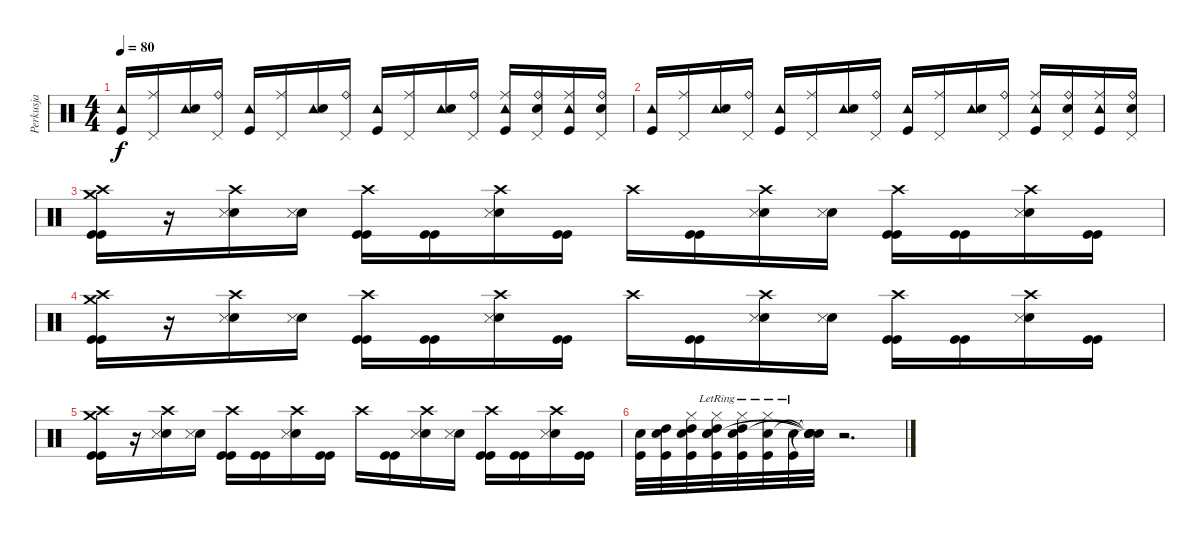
\track ("Perkusja" "Perkusja") {instrument percussion}
\staff {score}
\articulation defaults
\ts (4 4)
\tempo 80
\clef neutral
\ks c
("Tambourine (hit)" "Kick (hit)").16{dy f} ("Pedal Hi-Hat (hit)" "Ride (middle)").16 ("Tambourine (hit)" "Snare (hit) 2").16 ("Pedal Hi-Hat (hit)" "Ride (bell)").16 ("Tambourine (hit)" "Kick (hit)").16 ("Pedal Hi-Hat (hit)" "Ride (middle)").16 ("Tambourine (hit)" "Snare (hit) 2").16 ("Pedal Hi-Hat (hit)" "Ride (bell)").16 ("Tambourine (hit)" "Kick (hit)").16 ("Pedal Hi-Hat (hit)" "Ride (middle)").16 ("Tambourine (hit)" "Snare (hit) 2").16 ("Pedal Hi-Hat (hit)" "Ride (bell)").16 ("Tambourine (hit)" "Kick (hit)" "Ride (middle)").16 ("Pedal Hi-Hat (hit)" "Snare (hit) 2" "Ride (bell)").16 ("Tambourine (hit)" "Kick (hit)" "Ride (middle)").16 ("Pedal Hi-Hat (hit)" "Snare (hit) 2" "Ride (bell)").16 |
("Tambourine (hit)" "Kick (hit)").16 ("Pedal Hi-Hat (hit)" "Ride (middle)").16 ("Tambourine (hit)" "Snare (hit) 2").16 ("Pedal Hi-Hat (hit)" "Ride (bell)").16 ("Tambourine (hit)" "Kick (hit)").16 ("Pedal Hi-Hat (hit)" "Ride (middle)").16 ("Tambourine (hit)" "Snare (hit) 2").16 ("Pedal Hi-Hat (hit)" "Ride (bell)").16 ("Tambourine (hit)" "Kick (hit)").16 ("Pedal Hi-Hat (hit)" "Ride (middle)").16 ("Tambourine (hit)" "Snare (hit) 2").16 ("Pedal Hi-Hat (hit)" "Ride (bell)").16 ("Tambourine (hit)" "Kick (hit)" "Ride (middle)").16 ("Pedal Hi-Hat (hit)" "Snare (hit) 2" "Ride (bell)").16 ("Tambourine (hit)" "Kick (hit)" "Ride (middle)").16 ("Pedal Hi-Hat (hit)" "Snare (hit) 2" "Ride (bell)").16 |
("Crash medium (hit)" "Crash high (hit)" "Kick (hit)" "Kick (hit)").16 r.16 ("Crash high (hit)" "Electric Snare (hit)" "Snare (side stick) 3").16 ("Electric Snare (hit)" "Snare (side stick) 3").16 ("Crash high (hit)" "Kick (hit)" "Kick (hit)").16 ("Kick (hit)" "Kick (hit)").16 ("Crash high (hit)" "Electric Snare (hit)" "Snare (side stick) 3").16 ("Kick (hit)" "Kick (hit)").16 "Crash high (hit)".16 ("Kick (hit)" "Kick (hit)").16 ("Crash high (hit)" "Electric Snare (hit)" "Snare (side stick) 3").16 ("Electric Snare (hit)" "Snare (side stick) 3").16 ("Crash high (hit)" "Kick (hit)" "Kick (hit)").16 ("Kick (hit)" "Kick (hit)").16 ("Crash high (hit)" "Electric Snare (hit)" "Snare (side stick) 3").16 ("Kick (hit)" "Kick (hit)").16 |
("Crash medium (hit)" "Crash high (hit)" "Kick (hit)" "Kick (hit)").16 r.16 ("Crash high (hit)" "Electric Snare (hit)" "Snare (side stick) 3").16 ("Electric Snare (hit)" "Snare (side stick) 3").16 ("Crash high (hit)" "Kick (hit)" "Kick (hit)").16 ("Kick (hit)" "Kick (hit)").16 ("Crash high (hit)" "Electric Snare (hit)" "Snare (side stick) 3").16 ("Kick (hit)" "Kick (hit)").16 "Crash high (hit)".16 ("Kick (hit)" "Kick (hit)").16 ("Crash high (hit)" "Electric Snare (hit)" "Snare (side stick) 3").16 ("Electric Snare (hit)" "Snare (side stick) 3").16 ("Crash high (hit)" "Kick (hit)" "Kick (hit)").16 ("Kick (hit)" "Kick (hit)").16 ("Crash high (hit)" "Electric Snare (hit)" "Snare (side stick) 3").16 ("Kick (hit)" "Kick (hit)").16 |
("Crash medium (hit)" "Crash high (hit)" "Kick (hit)" "Kick (hit)").16 r.16 ("Crash high (hit)" "Electric Snare (hit)" "Snare (side stick) 3").16 ("Electric Snare (hit)" "Snare (side stick) 3").16 ("Crash high (hit)" "Kick (hit)" "Kick (hit)").16 ("Kick (hit)" "Kick (hit)").16 ("Crash high (hit)" "Electric Snare (hit)" "Snare (side stick) 3").16 ("Kick (hit)" "Kick (hit)").16 "Crash high (hit)".16 ("Kick (hit)" "Kick (hit)").16 ("Crash high (hit)" "Electric Snare (hit)" "Snare (side stick) 3").16 ("Electric Snare (hit)" "Snare (side stick) 3").16 ("Crash high (hit)" "Kick (hit)" "Kick (hit)").16 ("Kick (hit)" "Kick (hit)").16 ("Crash high (hit)" "Electric Snare (hit)" "Snare (side stick) 3").16 ("Kick (hit)" "Kick (hit)").16 |
("Kick (hit)" "Electric Snare (hit)").32 ("Kick (hit)" "Electric Snare (hit)" "High Tom (hit)").32 ("Kick (hit)" "Electric Snare (hit)" "High Tom (hit)" "Hi-Hat (closed)").32 ("Kick (hit)" "Electric Snare (hit)"{lr} "High Tom (hit)" "Hi-Hat (closed)" "Snare (hit) 2").32 ("Kick (hit)" "High Tom (hit)"{lr} "Hi-Hat (closed)" "Snare (hit) 2").32 ("Kick (hit)" "Hi-Hat (closed)"{lr} "Snare (hit) 2").32 ("Kick (hit)"{lr} "Snare (hit) 2"{lr}).32 ("Snare (hit)"{t} "Snare (hit)"{t} "Snare (hit)"{t} "Snare (hit)"{t} "Snare (hit)"{t}).32 r.2{d}
